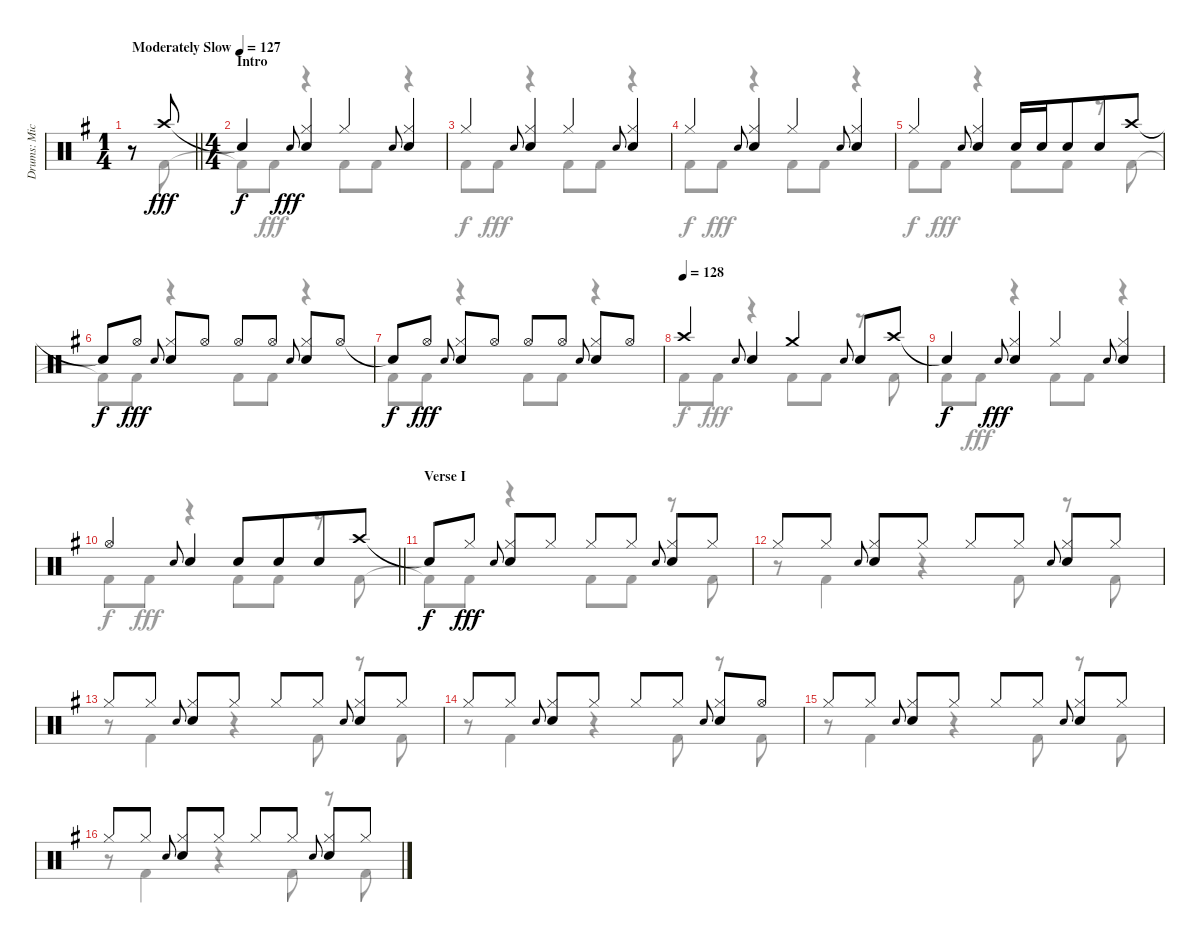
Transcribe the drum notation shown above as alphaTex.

\track ("Drums: Mick" "Drums: Mic") {instrument percussion}
\staff {score}
\articulation defaults
\voice
\ts (1 4)
\tempo (127 "Moderately Slow")
\clef neutral
\barLineRight lightlight
\ks g
r.8{dy fff} "Crash high (hit)".8 |
\ts (4 4)
\section ("" "Intro")
"Snare (hit)"{t}.4{dy f} "Electric Snare (hit)".8{gr onbeat dy fff} ("Hi-Hat (closed)" "Snare (hit) 2").4 "Hi-Hat (closed)".4 "Electric Snare (hit)".8{gr onbeat} ("Hi-Hat (closed)" "Snare (hit) 2").4 |
"Hi-Hat (closed)".4 "Electric Snare (hit)".8{gr onbeat} ("Hi-Hat (closed)" "Snare (hit) 2").4 "Hi-Hat (closed)".4 "Electric Snare (hit)".8{gr onbeat} ("Hi-Hat (closed)" "Snare (hit) 2").4 |
"Hi-Hat (closed)".4 "Electric Snare (hit)".8{gr onbeat} ("Hi-Hat (closed)" "Snare (hit) 2").4 "Hi-Hat (closed)".4 "Electric Snare (hit)".8{gr onbeat} ("Hi-Hat (closed)" "Snare (hit) 2").4 |
"Hi-Hat (closed)".4 "Electric Snare (hit)".8{gr onbeat} ("Hi-Hat (closed)" "Snare (hit) 2").4 "Snare (hit) 2".16 "Snare (hit) 2".16 "Snare (hit) 2".8{beam merge} "Snare (hit) 2".8 "Crash high (hit)".8 |
"Snare (hit)"{t}.8{dy f} "Hi-Hat (open)".8{dy fff} "Electric Snare (hit)".8{gr onbeat beam merge} ("Hi-Hat (closed)" "Snare (hit) 2").8 "Hi-Hat (open)".8 "Hi-Hat (open)".8 "Hi-Hat (open)".8 "Electric Snare (hit)".8{gr onbeat beam merge} ("Hi-Hat (closed)" "Snare (hit) 2").8 "Hi-Hat (open)".8 |
"Snare (hit)"{t}.8{dy f} "Hi-Hat (open)".8{dy fff} "Electric Snare (hit)".8{gr onbeat beam merge} ("Hi-Hat (closed)" "Snare (hit) 2").8 "Hi-Hat (open)".8 "Hi-Hat (open)".8 "Hi-Hat (open)".8 "Electric Snare (hit)".8{gr onbeat beam merge} ("Hi-Hat (closed)" "Snare (hit) 2").8 "Hi-Hat (open)".8 |
\tempo (128)
"Crash high (hit)".4 "Electric Snare (hit)".8{gr onbeat} "Snare (hit) 2".4 "Crash medium (hit)".4 "Electric Snare (hit)".8{gr onbeat} "Snare (hit) 2".8 "Crash high (hit)".8 |
"Snare (hit)"{t}.4{dy f} "Electric Snare (hit)".8{gr onbeat dy fff} ("Hi-Hat (closed)" "Snare (hit) 2").4 "Hi-Hat (closed)".4 "Electric Snare (hit)".8{gr onbeat} ("Hi-Hat (closed)" "Snare (hit) 2").4 |
\barLineRight lightlight "Hi-Hat (open)".4 "Electric Snare (hit)".8{gr onbeat} "Snare (hit) 2".4 "Snare (hit) 2".8 "Snare (hit) 2".8{beam merge} "Snare (hit) 2".8 "Crash high (hit)".8
|
\section ("" "Verse I")
"Snare (hit)"{t}.8{dy f} "Hi-Hat (closed)".8{dy fff} "Electric Snare (hit)".8{gr onbeat beam merge} ("Hi-Hat (closed)" "Snare (hit) 2").8 "Hi-Hat (closed)".8 "Hi-Hat (closed)".8 "Hi-Hat (closed)".8 "Electric Snare (hit)".8{gr onbeat beam merge} ("Hi-Hat (closed)" "Snare (hit) 2").8 "Hi-Hat (closed)".8 |
"Hi-Hat (closed)".8 "Hi-Hat (closed)".8 "Electric Snare (hit)".8{gr onbeat beam merge} ("Hi-Hat (closed)" "Snare (hit) 2").8 "Hi-Hat (closed)".8 "Hi-Hat (closed)".8 "Hi-Hat (closed)".8 "Electric Snare (hit)".8{gr onbeat beam merge} ("Hi-Hat (closed)" "Snare (hit) 2").8 "Hi-Hat (closed)".8 |
"Hi-Hat (closed)".8 "Hi-Hat (closed)".8 "Electric Snare (hit)".8{gr onbeat beam merge} ("Hi-Hat (closed)" "Snare (hit) 2").8 "Hi-Hat (closed)".8 "Hi-Hat (closed)".8 "Hi-Hat (closed)".8 "Electric Snare (hit)".8{gr onbeat beam merge} ("Hi-Hat (closed)" "Snare (hit) 2").8 "Hi-Hat (closed)".8 |
"Hi-Hat (closed)".8 "Hi-Hat (closed)".8 "Electric Snare (hit)".8{gr onbeat beam merge} ("Hi-Hat (closed)" "Snare (hit) 2").8 "Hi-Hat (closed)".8 "Hi-Hat (closed)".8 "Hi-Hat (closed)".8 "Electric Snare (hit)".8{gr onbeat beam merge} ("Hi-Hat (closed)" "Snare (hit) 2").8 "Hi-Hat (open)".8 |
"Hi-Hat (closed)".8 "Hi-Hat (closed)".8 "Electric Snare (hit)".8{gr onbeat beam merge} ("Hi-Hat (closed)" "Snare (hit) 2").8 "Hi-Hat (closed)".8 "Hi-Hat (closed)".8 "Hi-Hat (closed)".8 "Electric Snare (hit)".8{gr onbeat beam merge} ("Hi-Hat (closed)" "Snare (hit) 2").8 "Hi-Hat (closed)".8 |
"Hi-Hat (closed)".8 "Hi-Hat (closed)".8 "Electric Snare (hit)".8{gr onbeat beam merge} ("Hi-Hat (closed)" "Snare (hit) 2").8 "Hi-Hat (closed)".8 "Hi-Hat (closed)".8 "Hi-Hat (closed)".8 "Electric Snare (hit)".8{gr onbeat beam merge} ("Hi-Hat (closed)" "Snare (hit) 2").8 "Hi-Hat (closed)".8
\voice
\clef neutral
\ottava regular
\simile none
\barLineRight lightlight
\ks g
r.8{dy fff} "Kick (hit) 2".8 |
"Kick (hit) 2"{t}.8{dy f} "Kick (hit) 2".8{dy fff} r.4 "Kick (hit) 2".8 "Kick (hit) 2".8 r.4 |
"Kick (hit) 2".8{dy f} "Kick (hit) 2".8{dy fff} r.4 "Kick (hit) 2".8 "Kick (hit) 2".8 r.4 |
"Kick (hit) 2".8{dy f} "Kick (hit) 2".8{dy fff} r.4 "Kick (hit) 2".8 "Kick (hit) 2".8 r.4 |
"Kick (hit) 2".8{dy f} "Kick (hit) 2".8{dy fff} r.4 "Kick (hit) 2".8 "Kick (hit) 2".8 r.8 "Kick (hit) 2".8 |
"Kick (hit) 2"{t}.8{dy f} "Kick (hit) 2".8{dy fff} r.4 "Kick (hit) 2".8 "Kick (hit) 2".8 r.4 |
"Kick (hit) 2".8{dy f} "Kick (hit) 2".8{dy fff} r.4 "Kick (hit) 2".8 "Kick (hit) 2".8 r.4 |
"Kick (hit) 2".8{dy f} "Kick (hit) 2".8{dy fff} r.4 "Kick (hit) 2".8 "Kick (hit) 2".8 r.8 "Kick (hit) 2".8 |
"Kick (hit) 2".8{dy f} "Kick (hit) 2".8{dy fff} r.4 "Kick (hit) 2".8 "Kick (hit) 2".8 r.4 |
\barLineRight lightlight "Kick (hit) 2".8{dy f} "Kick (hit) 2".8{dy fff}
r.4 "Kick (hit) 2".8 "Kick (hit) 2".8 r.8 "Kick (hit) 2".8 |
"Kick (hit) 2"{t}.8{dy f} "Kick (hit) 2".8{dy fff} r.4 "Kick (hit) 2".8 "Kick (hit) 2".8 r.8 "Kick (hit) 2".8 |
r.8 "Kick (hit) 2".4 r.4 "Kick (hit) 2".8 r.8 "Kick (hit) 2".8 |
r.8 "Kick (hit) 2".4 r.4 "Kick (hit) 2".8 r.8 "Kick (hit) 2".8 |
r.8 "Kick (hit) 2".4 r.4 "Kick (hit) 2".8 r.8 "Kick (hit) 2".8 |
r.8 "Kick (hit) 2".4 r.4 "Kick (hit) 2".8 r.8 "Kick (hit) 2".8 |
r.8 "Kick (hit) 2".4 r.4 "Kick (hit) 2".8 r.8 "Kick (hit) 2".8
